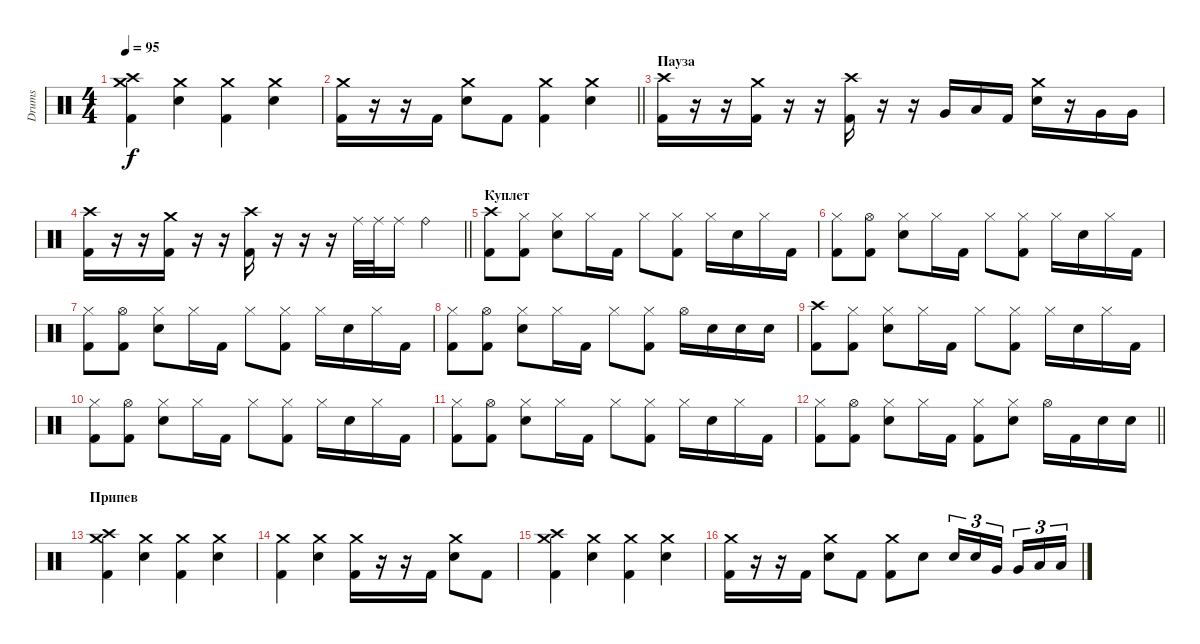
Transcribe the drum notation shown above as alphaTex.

\track ("Drums" "Drums") {instrument percussion}
\staff {score}
\articulation defaults
\ts (4 4)
\tempo 95
\clef neutral
\ks c
("Crash medium (hit)" "Crash high (hit)" "Kick (hit) 2").4{dy f} ("Crash medium (hit)" "Electric Snare (hit)").4 ("Crash medium (hit)" "Kick (hit) 2").4 ("Crash medium (hit)" "Electric Snare (hit)").4 |
\barLineRight lightlight
("Crash medium (hit)" "Kick (hit) 2").16 r.16 r.16 "Kick (hit) 2".16 ("Crash medium (hit)" "Electric Snare (hit)").8 "Kick (hit) 2".8 ("Crash medium (hit)" "Kick (hit) 2").4 ("Crash medium (hit)" "Electric Snare (hit)").4 |
\section ("" "Пауза")
("Crash high (hit)" "Kick (hit) 2").16 r.16 r.16 ("Crash medium (hit)" "Kick (hit) 2").16 r.16 r.16 ("Crash high (hit)" "Kick (hit) 2").16 r.16 r.16 "Very Low Tom (hit)".16 "Low Floor Tom (hit)".16 "Kick (hit) 2".16 ("Crash medium (hit)" "Electric Snare (hit)").16 r.16 "Very Low Tom (hit)".16 "Very Low Tom (hit)".16 |
\barLineRight lightlight
("Crash high (hit)" "Kick (hit) 2").16 r.16 r.16 ("Crash medium (hit)" "Kick (hit) 2").16 r.16 r.16 ("Crash high (hit)" "Kick (hit) 2").16 r.16 r.16 r.16 "Ride (middle)".32 "Ride (middle)".32 "Ride (middle)".16 "Ride (bell)".4 |
\section ("" "Куплет")
("Crash high (hit)" "Kick (hit) 2").8 ("Hi-Hat (closed)" "Kick (hit) 2").8 ("Hi-Hat (closed)" "Electric Snare (hit)").8 "Hi-Hat (closed)".16 "Kick (hit) 2".16 "Hi-Hat (closed)".8 ("Hi-Hat (closed)" "Kick (hit) 2").8 "Hi-Hat (closed)".16 "Electric Snare (hit)".16 "Hi-Hat (closed)".16 "Kick (hit) 2".16 |
("Hi-Hat (closed)" "Kick (hit) 2").8 ("Hi-Hat (open)" "Kick (hit) 2").8 ("Hi-Hat (closed)" "Electric Snare (hit)").8 "Hi-Hat (closed)".16 "Kick (hit) 2".16 "Hi-Hat (closed)".8 ("Hi-Hat (closed)" "Kick (hit) 2").8 "Hi-Hat (closed)".16 "Electric Snare (hit)".16 "Hi-Hat (closed)".16 "Kick (hit) 2".16 |
("Hi-Hat (closed)" "Kick (hit) 2").8 ("Hi-Hat (open)" "Kick (hit) 2").8 ("Hi-Hat (closed)" "Electric Snare (hit)").8 "Hi-Hat (closed)".16 "Kick (hit) 2".16 "Hi-Hat (closed)".8 ("Hi-Hat (closed)" "Kick (hit) 2").8 "Hi-Hat (closed)".16 "Electric Snare (hit)".16 "Hi-Hat (closed)".16 "Kick (hit) 2".16 |
("Hi-Hat (closed)" "Kick (hit) 2").8 ("Hi-Hat (open)" "Kick (hit) 2").8 ("Hi-Hat (closed)" "Electric Snare (hit)").8 "Hi-Hat (closed)".16 "Kick (hit) 2".16 "Hi-Hat (closed)".8 ("Hi-Hat (closed)" "Kick (hit) 2").8 "Hi-Hat (open)".16 "Electric Snare (hit)".16 "Electric Snare (hit)".16 "Electric Snare (hit)".16 |
("Crash high (hit)" "Kick (hit) 2").8 ("Hi-Hat (closed)" "Kick (hit) 2").8 ("Hi-Hat (closed)" "Electric Snare (hit)").8 "Hi-Hat (closed)".16 "Kick (hit) 2".16 "Hi-Hat (closed)".8 ("Hi-Hat (closed)" "Kick (hit) 2").8 "Hi-Hat (closed)".16 "Electric Snare (hit)".16 "Hi-Hat (closed)".16 "Kick (hit) 2".16 |
("Hi-Hat (closed)" "Kick (hit) 2").8 ("Hi-Hat (open)" "Kick (hit) 2").8 ("Hi-Hat (closed)" "Electric Snare (hit)").8 "Hi-Hat (closed)".16 "Kick (hit) 2".16 "Hi-Hat (closed)".8 ("Hi-Hat (closed)" "Kick (hit) 2").8 "Hi-Hat (closed)".16 "Electric Snare (hit)".16 "Hi-Hat (closed)".16 "Kick (hit) 2".16 |
("Hi-Hat (closed)" "Kick (hit) 2").8 ("Hi-Hat (open)" "Kick (hit) 2").8 ("Hi-Hat (closed)" "Electric Snare (hit)").8 "Hi-Hat (closed)".16 "Kick (hit) 2".16 "Hi-Hat (closed)".8 ("Hi-Hat (closed)" "Kick (hit) 2").8 "Hi-Hat (closed)".16 "Electric Snare (hit)".16 "Hi-Hat (closed)".16 "Kick (hit) 2".16 |
\barLineRight lightlight
("Hi-Hat (closed)" "Kick (hit) 2").8 ("Hi-Hat (open)" "Kick (hit) 2").8 ("Hi-Hat (closed)" "Electric Snare (hit)").8 "Hi-Hat (closed)".16 "Kick (hit) 2".16 ("Hi-Hat (closed)" "Kick (hit) 2").8 ("Hi-Hat (closed)" "Electric Snare (hit)").8 "Hi-Hat (open)".16 "Kick (hit) 2".16 "Electric Snare (hit)".16 "Electric Snare (hit)".16 |
\section ("" "Припев")
("Crash medium (hit)" "Crash high (hit)" "Kick (hit) 2").4 ("Crash medium (hit)" "Electric Snare (hit)").4 ("Crash medium (hit)" "Kick (hit) 2").4 ("Crash medium (hit)" "Electric Snare (hit)").4 |
("Crash medium (hit)" "Kick (hit) 2").4 ("Crash medium (hit)" "Electric Snare (hit)").4 ("Crash medium (hit)" "Kick (hit) 2").16 r.16 r.16 "Kick (hit) 2".16 ("Crash medium (hit)" "Electric Snare (hit)").8 "Kick (hit) 2".8 |
("Crash medium (hit)" "Crash high (hit)" "Kick (hit) 2").4 ("Crash medium (hit)" "Electric Snare (hit)").4 ("Crash medium (hit)" "Kick (hit) 2").4 ("Crash medium (hit)" "Electric Snare (hit)").4 |
("Crash medium (hit)" "Kick (hit) 2").16 r.16 r.16 "Kick (hit) 2".16 ("Crash medium (hit)" "Electric Snare (hit)").8 "Kick (hit) 2".8 ("Crash medium (hit)" "Kick (hit) 2").8 "Electric Snare (hit)".8 "Electric Snare (hit)".16{tu (3 2)} "Electric Snare (hit)".16{tu (3 2)} "Very Low Tom (hit)".16{tu (3 2) beam splitsecondary} "Very Low Tom (hit)".16{tu (3 2)} "Low Floor Tom (hit)".16{tu (3 2)} "Low Floor Tom (hit)".16{tu (3 2)}
